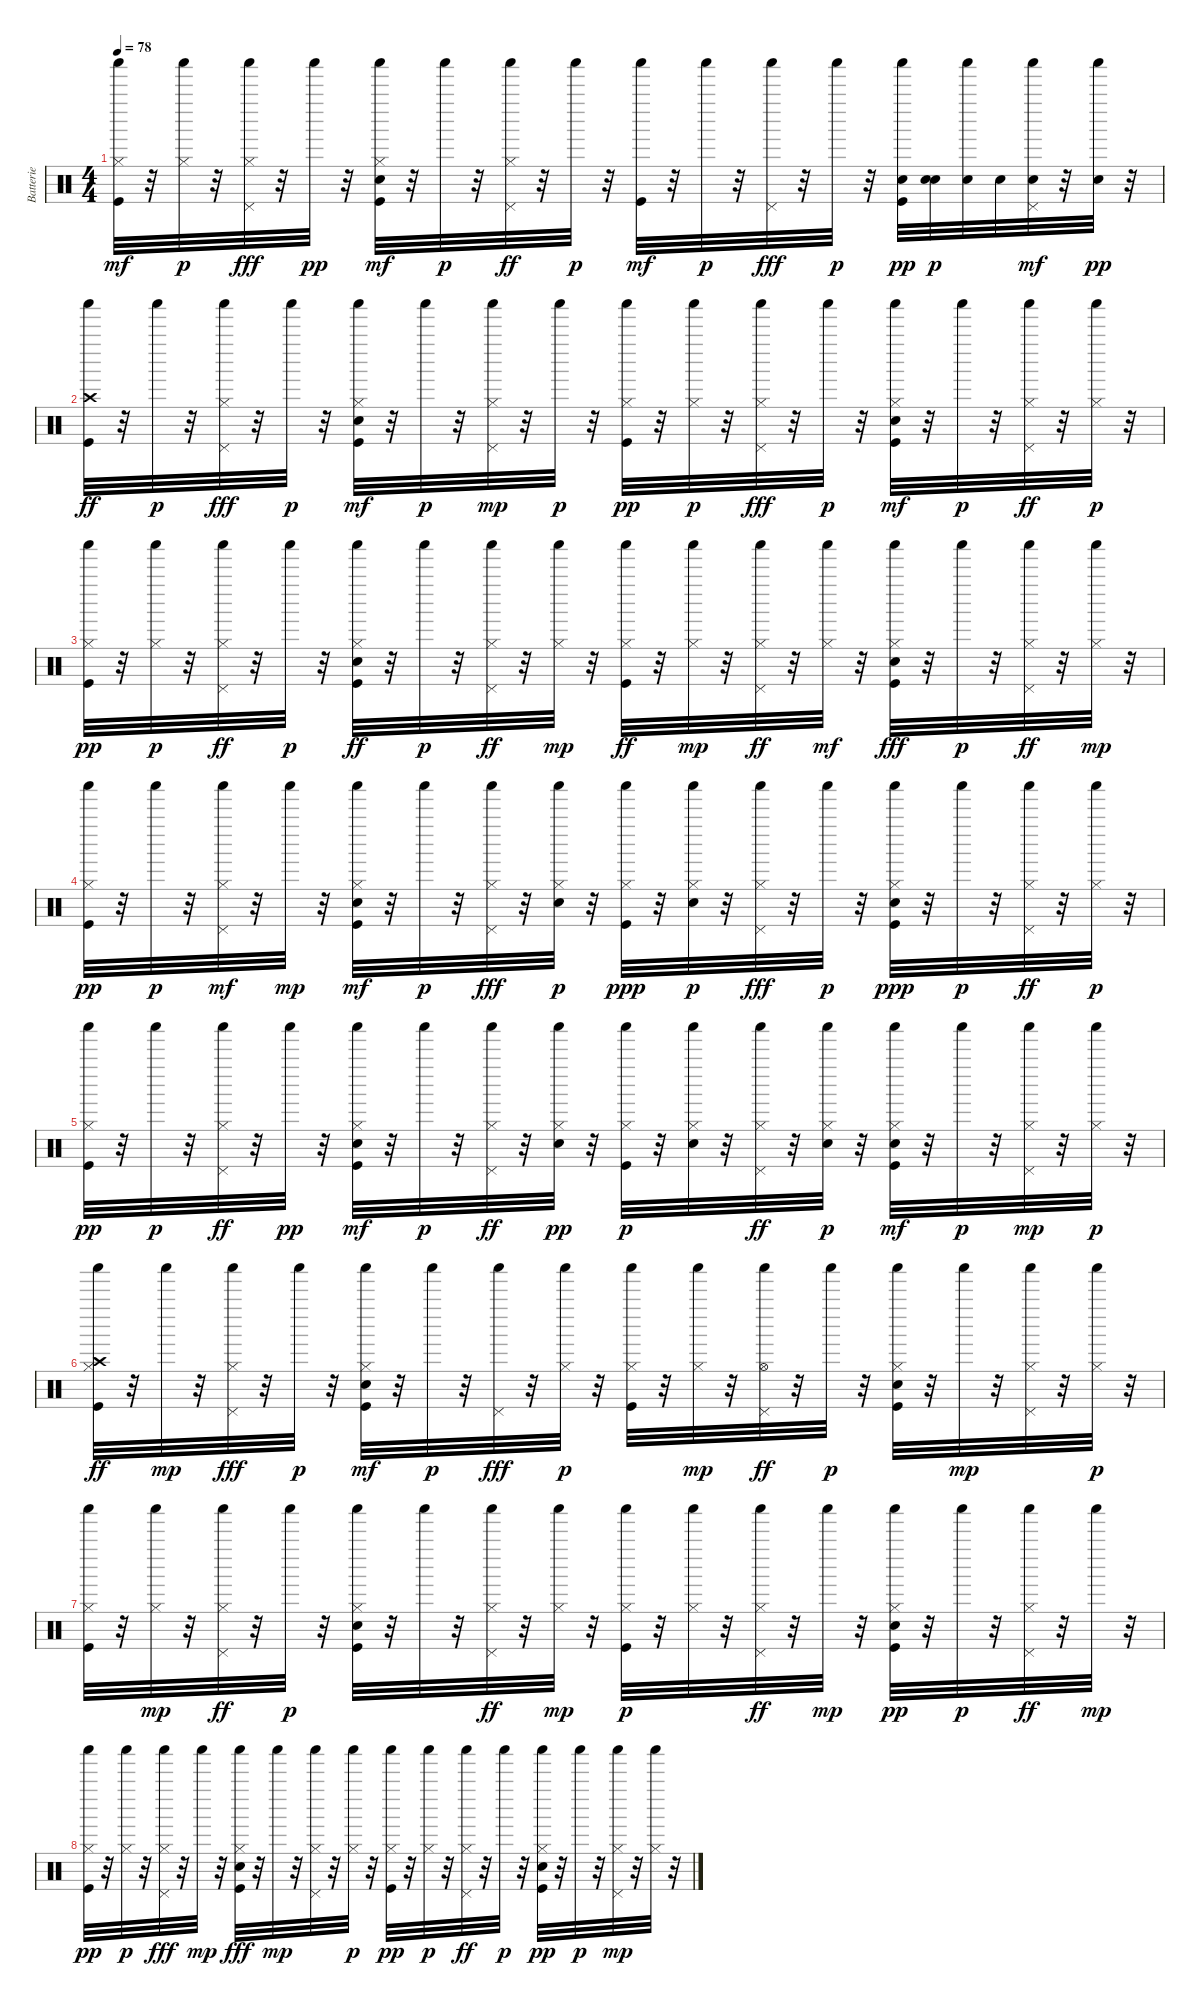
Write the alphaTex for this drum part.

\track ("Batterie" "Batterie") {instrument percussion}
\staff {score}
\articulation defaults
\ts (4 4)
\tempo 78
\clef neutral
\ks c
("Hi-Hat (closed)" "Shaker (hit)" "Kick (hit)").32{dy mf} r.32 ("Hi-Hat (closed)" "Shaker (hit)").32{dy p} r.32 ("Pedal Hi-Hat (hit)" "Shaker (hit)" "Hi-Hat (closed)").32{dy fff} r.32 "Shaker (hit)".32{dy pp} r.32 ("Shaker (hit)" "Kick (hit)" "Hi-Hat (closed)" "Electric Snare (hit)").32{dy mf} r.32 "Shaker (hit)".32{dy p} r.32 ("Shaker (hit)" "Pedal Hi-Hat (hit)" "Hi-Hat (closed)").32{dy ff} r.32 "Shaker (hit)".32{dy p} r.32 ("Shaker (hit)" "Kick (hit)").32{dy mf} r.32 "Shaker (hit)".32{dy p} r.32 ("Shaker (hit)" "Pedal Hi-Hat (hit)").32{dy fff} r.32 "Shaker (hit)".32{dy p} r.32 ("Shaker (hit)" "Kick (hit)" "Electric Snare (hit)").32{dy pp} ("Electric Snare (hit)" "Electric Snare (hit)").32{dy p} ("Electric Snare (hit)" "Shaker (hit)").32 "Electric Snare (hit)".32 ("Electric Snare (hit)" "Pedal Hi-Hat (hit)" "Shaker (hit)").32{dy mf} r.32 ("Electric Snare (hit)" "Shaker (hit)").32{dy pp} r.32 |
("Kick (hit)" "Shaker (hit)" "Crash high (hit)").32{dy ff} r.32 "Shaker (hit)".32{dy p} r.32 ("Shaker (hit)" "Pedal Hi-Hat (hit)" "Hi-Hat (closed)").32{dy fff} r.32 "Shaker (hit)".32{dy p} r.32 ("Kick (hit)" "Hi-Hat (closed)" "Shaker (hit)" "Electric Snare (hit)").32{dy mf} r.32 "Shaker (hit)".32{dy p} r.32 ("Pedal Hi-Hat (hit)" "Shaker (hit)" "Hi-Hat (closed)").32{dy mp} r.32 "Shaker (hit)".32{dy p} r.32 ("Hi-Hat (closed)" "Kick (hit)" "Shaker (hit)").32{dy pp} r.32 ("Hi-Hat (closed)" "Shaker (hit)").32{dy p} r.32 ("Hi-Hat (closed)" "Pedal Hi-Hat (hit)" "Shaker (hit)").32{dy fff} r.32 "Shaker (hit)".32{dy p} r.32 ("Electric Snare (hit)" "Hi-Hat (closed)" "Shaker (hit)" "Kick (hit)").32{dy mf} r.32 "Shaker (hit)".32{dy p} r.32 ("Hi-Hat (closed)" "Pedal Hi-Hat (hit)" "Shaker (hit)").32{dy ff} r.32 ("Hi-Hat (closed)" "Shaker (hit)").32{dy p} r.32 |
("Hi-Hat (closed)" "Kick (hit)" "Shaker (hit)").32{dy pp} r.32 ("Hi-Hat (closed)" "Shaker (hit)").32{dy p} r.32 ("Hi-Hat (closed)" "Shaker (hit)" "Pedal Hi-Hat (hit)").32{dy ff} r.32 "Shaker (hit)".32{dy p} r.32 ("Electric Snare (hit)" "Kick (hit)" "Shaker (hit)" "Hi-Hat (closed)").32{dy ff} r.32 "Shaker (hit)".32{dy p} r.32 ("Shaker (hit)" "Hi-Hat (closed)" "Pedal Hi-Hat (hit)").32{dy ff} r.32 ("Hi-Hat (closed)" "Shaker (hit)").32{dy mp} r.32 ("Kick (hit)" "Shaker (hit)" "Hi-Hat (closed)").32{dy ff} r.32 ("Shaker (hit)" "Hi-Hat (closed)").32{dy mp} r.32 ("Pedal Hi-Hat (hit)" "Shaker (hit)" "Hi-Hat (closed)").32{dy ff} r.32 ("Shaker (hit)" "Hi-Hat (closed)").32{dy mf} r.32 ("Electric Snare (hit)" "Kick (hit)" "Shaker (hit)" "Hi-Hat (closed)").32{dy fff} r.32 "Shaker (hit)".32{dy p} r.32 ("Hi-Hat (closed)" "Shaker (hit)" "Pedal Hi-Hat (hit)").32{dy ff} r.32 ("Hi-Hat (closed)" "Shaker (hit)").32{dy mp} r.32 |
("Kick (hit)" "Hi-Hat (closed)" "Shaker (hit)").32{dy pp} r.32 "Shaker (hit)".32{dy p} r.32 ("Pedal Hi-Hat (hit)" "Shaker (hit)" "Hi-Hat (closed)").32{dy mf} r.32 "Shaker (hit)".32{dy mp} r.32 ("Hi-Hat (closed)" "Kick (hit)" "Shaker (hit)" "Electric Snare (hit)").32{dy mf} r.32 "Shaker (hit)".32{dy p} r.32 ("Shaker (hit)" "Hi-Hat (closed)" "Pedal Hi-Hat (hit)").32{dy fff} r.32 ("Electric Snare (hit)" "Hi-Hat (closed)" "Shaker (hit)").32{dy p} r.32 ("Kick (hit)" "Hi-Hat (closed)" "Shaker (hit)").32{dy ppp} r.32 ("Electric Snare (hit)" "Hi-Hat (closed)" "Shaker (hit)").32{dy p} r.32 ("Hi-Hat (closed)" "Shaker (hit)" "Pedal Hi-Hat (hit)").32{dy fff} r.32 "Shaker (hit)".32{dy p} r.32 ("Electric Snare (hit)" "Hi-Hat (closed)" "Kick (hit)" "Shaker (hit)").32{dy ppp} r.32 "Shaker (hit)".32{dy p} r.32 ("Hi-Hat (closed)" "Shaker (hit)" "Pedal Hi-Hat (hit)").32{dy ff} r.32 ("Hi-Hat (closed)" "Shaker (hit)").32{dy p} r.32 |
("Hi-Hat (closed)" "Kick (hit)" "Shaker (hit)").32{dy pp} r.32 "Shaker (hit)".32{dy p} r.32 ("Hi-Hat (closed)" "Pedal Hi-Hat (hit)" "Shaker (hit)").32{dy ff} r.32 "Shaker (hit)".32{dy pp} r.32 ("Hi-Hat (closed)" "Kick (hit)" "Shaker (hit)" "Electric Snare (hit)").32{dy mf} r.32 "Shaker (hit)".32{dy p} r.32 ("Hi-Hat (closed)" "Shaker (hit)" "Pedal Hi-Hat (hit)").32{dy ff} r.32 ("Shaker (hit)" "Hi-Hat (closed)" "Electric Snare (hit)").32{dy pp} r.32 ("Kick (hit)" "Hi-Hat (closed)" "Shaker (hit)").32{dy p} r.32 ("Electric Snare (hit)" "Hi-Hat (closed)" "Shaker (hit)").32 r.32 ("Hi-Hat (closed)" "Pedal Hi-Hat (hit)" "Shaker (hit)").32{dy ff} r.32 ("Electric Snare (hit)" "Hi-Hat (closed)" "Shaker (hit)").32{dy p} r.32 ("Hi-Hat (closed)" "Kick (hit)" "Shaker (hit)" "Electric Snare (hit)").32{dy mf} r.32 "Shaker (hit)".32{dy p} r.32 ("Pedal Hi-Hat (hit)" "Shaker (hit)" "Hi-Hat (closed)").32{dy mp} r.32 ("Shaker (hit)" "Hi-Hat (closed)").32{dy p} r.32 |
("Kick (hit)" "Shaker (hit)" "Hi-Hat (closed)" "Crash high (hit)").32{dy ff} r.32 "Shaker (hit)".32{dy mp} r.32 ("Hi-Hat (closed)" "Shaker (hit)" "Pedal Hi-Hat (hit)").32{dy fff} r.32 "Shaker (hit)".32{dy p} r.32 ("Electric Snare (hit)" "Hi-Hat (closed)" "Shaker (hit)" "Kick (hit)").32{dy mf} r.32 "Shaker (hit)".32{dy p} r.32 ("Shaker (hit)" "Pedal Hi-Hat (hit)").32{dy fff} r.32 ("Hi-Hat (closed)" "Shaker (hit)").32{dy p} r.32 ("Hi-Hat (closed)" "Kick (hit)" "Shaker (hit)").32 r.32 ("Hi-Hat (closed)" "Shaker (hit)").32{dy mp} r.32 ("Hi-Hat (open)" "Pedal Hi-Hat (hit)" "Shaker (hit)").32{dy ff} r.32 "Shaker (hit)".32{dy p} r.32 ("Electric Snare (hit)" "Hi-Hat (closed)" "Kick (hit)" "Shaker (hit)").32 r.32 "Shaker (hit)".32{dy mp} r.32 ("Shaker (hit)" "Pedal Hi-Hat (hit)" "Hi-Hat (closed)").32 r.32 ("Hi-Hat (closed)" "Shaker (hit)").32{dy p} r.32 |
("Hi-Hat (closed)" "Shaker (hit)" "Kick (hit)").32 r.32 ("Hi-Hat (closed)" "Shaker (hit)").32{dy mp} r.32 ("Hi-Hat (closed)" "Shaker (hit)" "Pedal Hi-Hat (hit)").32{dy ff} r.32 "Shaker (hit)".32{dy p} r.32 ("Electric Snare (hit)" "Hi-Hat (closed)" "Kick (hit)" "Shaker (hit)").32 r.32 "Shaker (hit)".32 r.32 ("Hi-Hat (closed)" "Pedal Hi-Hat (hit)" "Shaker (hit)").32{dy ff} r.32 ("Hi-Hat (closed)" "Shaker (hit)").32{dy mp} r.32 ("Kick (hit)" "Hi-Hat (closed)" "Shaker (hit)").32{dy p} r.32 ("Hi-Hat (closed)" "Shaker (hit)").32 r.32 ("Hi-Hat (closed)" "Pedal Hi-Hat (hit)" "Shaker (hit)").32{dy ff} r.32 "Shaker (hit)".32{dy mp} r.32 ("Electric Snare (hit)" "Hi-Hat (closed)" "Kick (hit)" "Shaker (hit)").32{dy pp} r.32 "Shaker (hit)".32{dy p} r.32 ("Hi-Hat (closed)" "Pedal Hi-Hat (hit)" "Shaker (hit)").32{dy ff} r.32 "Shaker (hit)".32{dy mp} r.32 |
("Hi-Hat (closed)" "Kick (hit)" "Shaker (hit)").32{dy pp} r.32 ("Hi-Hat (closed)" "Shaker (hit)").32{dy p} r.32 ("Pedal Hi-Hat (hit)" "Hi-Hat (closed)" "Shaker (hit)").32{dy fff} r.32 "Shaker (hit)".32{dy mp} r.32 ("Electric Snare (hit)" "Shaker (hit)" "Kick (hit)" "Hi-Hat (closed)").32{dy fff} r.32 "Shaker (hit)".32{dy mp} r.32 ("Pedal Hi-Hat (hit)" "Shaker (hit)" "Hi-Hat (closed)").32 r.32 ("Hi-Hat (closed)" "Shaker (hit)").32{dy p} r.32 ("Hi-Hat (closed)" "Shaker (hit)" "Kick (hit)").32{dy pp} r.32 ("Hi-Hat (closed)" "Shaker (hit)").32{dy p} r.32 ("Pedal Hi-Hat (hit)" "Hi-Hat (closed)" "Shaker (hit)").32{dy ff} r.32 "Shaker (hit)".32{dy p} r.32 ("Electric Snare (hit)" "Hi-Hat (closed)" "Kick (hit)" "Shaker (hit)").32{dy pp} r.32 "Shaker (hit)".32{dy p} r.32 ("Pedal Hi-Hat (hit)" "Shaker (hit)" "Hi-Hat (closed)").32{dy mp} r.32 ("Hi-Hat (closed)" "Shaker (hit)").32 r.32
